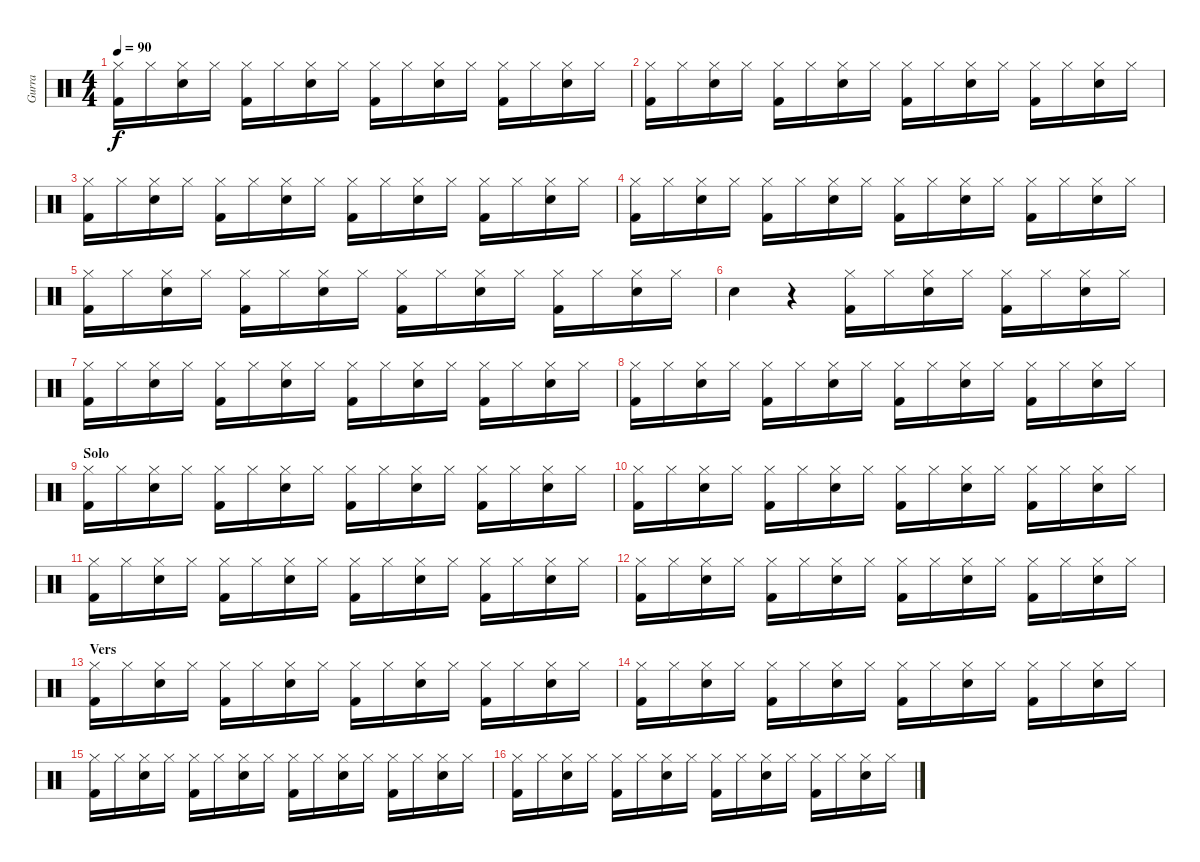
\track ("Gurra" "Gurra") {instrument percussion}
\staff {score}
\articulation defaults
\ts (4 4)
\tempo 90
\clef neutral
\ks c
("Kick (hit) 2" "Hi-Hat (closed)").16{dy f} "Hi-Hat (closed)".16 ("Snare (hit) 2" "Hi-Hat (closed)").16 "Hi-Hat (closed)".16 ("Kick (hit) 2" "Hi-Hat (closed)").16 "Hi-Hat (closed)".16 ("Snare (hit) 2" "Hi-Hat (closed)").16 "Hi-Hat (closed)".16 ("Kick (hit) 2" "Hi-Hat (closed)").16 "Hi-Hat (closed)".16 ("Snare (hit) 2" "Hi-Hat (closed)").16 "Hi-Hat (closed)".16 ("Kick (hit) 2" "Hi-Hat (closed)").16 "Hi-Hat (closed)".16 ("Snare (hit) 2" "Hi-Hat (closed)").16 "Hi-Hat (closed)".16 |
("Kick (hit) 2" "Hi-Hat (closed)").16 "Hi-Hat (closed)".16 ("Snare (hit) 2" "Hi-Hat (closed)").16 "Hi-Hat (closed)".16 ("Kick (hit) 2" "Hi-Hat (closed)").16 "Hi-Hat (closed)".16 ("Snare (hit) 2" "Hi-Hat (closed)").16 "Hi-Hat (closed)".16 ("Kick (hit) 2" "Hi-Hat (closed)").16 "Hi-Hat (closed)".16 ("Snare (hit) 2" "Hi-Hat (closed)").16 "Hi-Hat (closed)".16 ("Kick (hit) 2" "Hi-Hat (closed)").16 "Hi-Hat (closed)".16 ("Snare (hit) 2" "Hi-Hat (closed)").16 "Hi-Hat (closed)".16 |
("Kick (hit) 2" "Hi-Hat (closed)").16 "Hi-Hat (closed)".16 ("Snare (hit) 2" "Hi-Hat (closed)").16 "Hi-Hat (closed)".16 ("Kick (hit) 2" "Hi-Hat (closed)").16 "Hi-Hat (closed)".16 ("Snare (hit) 2" "Hi-Hat (closed)").16 "Hi-Hat (closed)".16 ("Kick (hit) 2" "Hi-Hat (closed)").16 "Hi-Hat (closed)".16 ("Snare (hit) 2" "Hi-Hat (closed)").16 "Hi-Hat (closed)".16 ("Kick (hit) 2" "Hi-Hat (closed)").16 "Hi-Hat (closed)".16 ("Snare (hit) 2" "Hi-Hat (closed)").16 "Hi-Hat (closed)".16 |
("Kick (hit) 2" "Hi-Hat (closed)").16 "Hi-Hat (closed)".16 ("Snare (hit) 2" "Hi-Hat (closed)").16 "Hi-Hat (closed)".16 ("Kick (hit) 2" "Hi-Hat (closed)").16 "Hi-Hat (closed)".16 ("Snare (hit) 2" "Hi-Hat (closed)").16 "Hi-Hat (closed)".16 ("Kick (hit) 2" "Hi-Hat (closed)").16 "Hi-Hat (closed)".16 ("Snare (hit) 2" "Hi-Hat (closed)").16 "Hi-Hat (closed)".16 ("Kick (hit) 2" "Hi-Hat (closed)").16 "Hi-Hat (closed)".16 ("Snare (hit) 2" "Hi-Hat (closed)").16 "Hi-Hat (closed)".16 |
("Kick (hit) 2" "Hi-Hat (closed)").16 "Hi-Hat (closed)".16 ("Snare (hit) 2" "Hi-Hat (closed)").16 "Hi-Hat (closed)".16 ("Kick (hit) 2" "Hi-Hat (closed)").16 "Hi-Hat (closed)".16 ("Snare (hit) 2" "Hi-Hat (closed)").16 "Hi-Hat (closed)".16 ("Kick (hit) 2" "Hi-Hat (closed)").16 "Hi-Hat (closed)".16 ("Snare (hit) 2" "Hi-Hat (closed)").16 "Hi-Hat (closed)".16 ("Kick (hit) 2" "Hi-Hat (closed)").16 "Hi-Hat (closed)".16 ("Snare (hit) 2" "Hi-Hat (closed)").16 "Hi-Hat (closed)".16 |
"Snare (hit) 2".4 r.4 ("Kick (hit) 2" "Hi-Hat (closed)").16 "Hi-Hat (closed)".16 ("Snare (hit) 2" "Hi-Hat (closed)").16 "Hi-Hat (closed)".16 ("Kick (hit) 2" "Hi-Hat (closed)").16 "Hi-Hat (closed)".16 ("Snare (hit) 2" "Hi-Hat (closed)").16 "Hi-Hat (closed)".16 |
("Kick (hit) 2" "Hi-Hat (closed)").16 "Hi-Hat (closed)".16 ("Snare (hit) 2" "Hi-Hat (closed)").16 "Hi-Hat (closed)".16 ("Kick (hit) 2" "Hi-Hat (closed)").16 "Hi-Hat (closed)".16 ("Snare (hit) 2" "Hi-Hat (closed)").16 "Hi-Hat (closed)".16 ("Kick (hit) 2" "Hi-Hat (closed)").16 "Hi-Hat (closed)".16 ("Snare (hit) 2" "Hi-Hat (closed)").16 "Hi-Hat (closed)".16 ("Kick (hit) 2" "Hi-Hat (closed)").16 "Hi-Hat (closed)".16 ("Snare (hit) 2" "Hi-Hat (closed)").16 "Hi-Hat (closed)".16 |
("Kick (hit) 2" "Hi-Hat (closed)").16 "Hi-Hat (closed)".16 ("Snare (hit) 2" "Hi-Hat (closed)").16 "Hi-Hat (closed)".16 ("Kick (hit) 2" "Hi-Hat (closed)").16 "Hi-Hat (closed)".16 ("Snare (hit) 2" "Hi-Hat (closed)").16 "Hi-Hat (closed)".16 ("Kick (hit) 2" "Hi-Hat (closed)").16 "Hi-Hat (closed)".16 ("Snare (hit) 2" "Hi-Hat (closed)").16 "Hi-Hat (closed)".16 ("Kick (hit) 2" "Hi-Hat (closed)").16 "Hi-Hat (closed)".16 ("Snare (hit) 2" "Hi-Hat (closed)").16 "Hi-Hat (closed)".16 |
\section ("" "Solo")
("Kick (hit) 2" "Hi-Hat (closed)").16 "Hi-Hat (closed)".16 ("Snare (hit) 2" "Hi-Hat (closed)").16 "Hi-Hat (closed)".16 ("Kick (hit) 2" "Hi-Hat (closed)").16 "Hi-Hat (closed)".16 ("Snare (hit) 2" "Hi-Hat (closed)").16 "Hi-Hat (closed)".16 ("Kick (hit) 2" "Hi-Hat (closed)").16 "Hi-Hat (closed)".16 ("Snare (hit) 2" "Hi-Hat (closed)").16 "Hi-Hat (closed)".16 ("Kick (hit) 2" "Hi-Hat (closed)").16 "Hi-Hat (closed)".16 ("Snare (hit) 2" "Hi-Hat (closed)").16 "Hi-Hat (closed)".16 |
("Kick (hit) 2" "Hi-Hat (closed)").16 "Hi-Hat (closed)".16 ("Snare (hit) 2" "Hi-Hat (closed)").16 "Hi-Hat (closed)".16 ("Kick (hit) 2" "Hi-Hat (closed)").16 "Hi-Hat (closed)".16 ("Snare (hit) 2" "Hi-Hat (closed)").16 "Hi-Hat (closed)".16 ("Kick (hit) 2" "Hi-Hat (closed)").16 "Hi-Hat (closed)".16 ("Snare (hit) 2" "Hi-Hat (closed)").16 "Hi-Hat (closed)".16 ("Kick (hit) 2" "Hi-Hat (closed)").16 "Hi-Hat (closed)".16 ("Snare (hit) 2" "Hi-Hat (closed)").16 "Hi-Hat (closed)".16 |
("Kick (hit) 2" "Hi-Hat (closed)").16 "Hi-Hat (closed)".16 ("Snare (hit) 2" "Hi-Hat (closed)").16 "Hi-Hat (closed)".16 ("Kick (hit) 2" "Hi-Hat (closed)").16 "Hi-Hat (closed)".16 ("Snare (hit) 2" "Hi-Hat (closed)").16 "Hi-Hat (closed)".16 ("Kick (hit) 2" "Hi-Hat (closed)").16 "Hi-Hat (closed)".16 ("Snare (hit) 2" "Hi-Hat (closed)").16 "Hi-Hat (closed)".16 ("Kick (hit) 2" "Hi-Hat (closed)").16 "Hi-Hat (closed)".16 ("Snare (hit) 2" "Hi-Hat (closed)").16 "Hi-Hat (closed)".16 |
("Kick (hit) 2" "Hi-Hat (closed)").16 "Hi-Hat (closed)".16 ("Snare (hit) 2" "Hi-Hat (closed)").16 "Hi-Hat (closed)".16 ("Kick (hit) 2" "Hi-Hat (closed)").16 "Hi-Hat (closed)".16 ("Snare (hit) 2" "Hi-Hat (closed)").16 "Hi-Hat (closed)".16 ("Kick (hit) 2" "Hi-Hat (closed)").16 "Hi-Hat (closed)".16 ("Snare (hit) 2" "Hi-Hat (closed)").16 "Hi-Hat (closed)".16 ("Kick (hit) 2" "Hi-Hat (closed)").16 "Hi-Hat (closed)".16 ("Snare (hit) 2" "Hi-Hat (closed)").16 "Hi-Hat (closed)".16 |
\section ("" "Vers")
("Kick (hit) 2" "Hi-Hat (closed)").16 "Hi-Hat (closed)".16 ("Snare (hit) 2" "Hi-Hat (closed)").16 "Hi-Hat (closed)".16 ("Kick (hit) 2" "Hi-Hat (closed)").16 "Hi-Hat (closed)".16 ("Snare (hit) 2" "Hi-Hat (closed)").16 "Hi-Hat (closed)".16 ("Kick (hit) 2" "Hi-Hat (closed)").16 "Hi-Hat (closed)".16 ("Snare (hit) 2" "Hi-Hat (closed)").16 "Hi-Hat (closed)".16 ("Kick (hit) 2" "Hi-Hat (closed)").16 "Hi-Hat (closed)".16 ("Snare (hit) 2" "Hi-Hat (closed)").16 "Hi-Hat (closed)".16 |
("Kick (hit) 2" "Hi-Hat (closed)").16 "Hi-Hat (closed)".16 ("Snare (hit) 2" "Hi-Hat (closed)").16 "Hi-Hat (closed)".16 ("Kick (hit) 2" "Hi-Hat (closed)").16 "Hi-Hat (closed)".16 ("Snare (hit) 2" "Hi-Hat (closed)").16 "Hi-Hat (closed)".16 ("Kick (hit) 2" "Hi-Hat (closed)").16 "Hi-Hat (closed)".16 ("Snare (hit) 2" "Hi-Hat (closed)").16 "Hi-Hat (closed)".16 ("Kick (hit) 2" "Hi-Hat (closed)").16 "Hi-Hat (closed)".16 ("Snare (hit) 2" "Hi-Hat (closed)").16 "Hi-Hat (closed)".16 |
("Kick (hit) 2" "Hi-Hat (closed)").16 "Hi-Hat (closed)".16 ("Snare (hit) 2" "Hi-Hat (closed)").16 "Hi-Hat (closed)".16 ("Kick (hit) 2" "Hi-Hat (closed)").16 "Hi-Hat (closed)".16 ("Snare (hit) 2" "Hi-Hat (closed)").16 "Hi-Hat (closed)".16 ("Kick (hit) 2" "Hi-Hat (closed)").16 "Hi-Hat (closed)".16 ("Snare (hit) 2" "Hi-Hat (closed)").16 "Hi-Hat (closed)".16 ("Kick (hit) 2" "Hi-Hat (closed)").16 "Hi-Hat (closed)".16 ("Snare (hit) 2" "Hi-Hat (closed)").16 "Hi-Hat (closed)".16 |
("Kick (hit) 2" "Hi-Hat (closed)").16 "Hi-Hat (closed)".16 ("Snare (hit) 2" "Hi-Hat (closed)").16 "Hi-Hat (closed)".16 ("Kick (hit) 2" "Hi-Hat (closed)").16 "Hi-Hat (closed)".16 ("Snare (hit) 2" "Hi-Hat (closed)").16 "Hi-Hat (closed)".16 ("Kick (hit) 2" "Hi-Hat (closed)").16 "Hi-Hat (closed)".16 ("Snare (hit) 2" "Hi-Hat (closed)").16 "Hi-Hat (closed)".16 ("Kick (hit) 2" "Hi-Hat (closed)").16 "Hi-Hat (closed)".16 ("Snare (hit) 2" "Hi-Hat (closed)").16 "Hi-Hat (closed)".16
